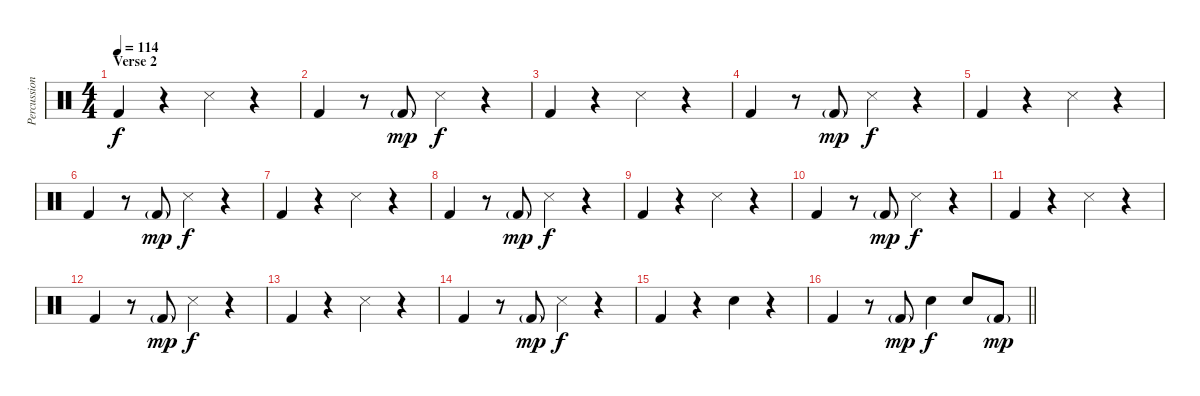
\track ("Percussion" "Percussion") {instrument percussion}
\staff {score}
\articulation defaults
\ts (4 4)
\section ("" "Verse 2")
\tempo 114
\clef neutral
\ks c "Kick (hit) 2".4{dy f}
r.4 "Snare (side stick) 3".4 r.4 |
"Kick (hit) 2".4 r.8 "Kick (hit) 2"{g}.8{dy mp} "Snare (side stick) 3".4{dy f} r.4 |
"Kick (hit) 2".4 r.4 "Snare (side stick) 3".4 r.4 |
"Kick (hit) 2".4 r.8 "Kick (hit) 2"{g}.8{dy mp} "Snare (side stick) 3".4{dy f} r.4 |
"Kick (hit) 2".4 r.4 "Snare (side stick) 3".4 r.4 |
"Kick (hit) 2".4 r.8 "Kick (hit) 2"{g}.8{dy mp} "Snare (side stick) 3".4{dy f} r.4 |
"Kick (hit) 2".4 r.4 "Snare (side stick) 3".4 r.4 |
"Kick (hit) 2".4 r.8 "Kick (hit) 2"{g}.8{dy mp} "Snare (side stick) 3".4{dy f} r.4 |
"Kick (hit) 2".4 r.4 "Snare (side stick) 3".4 r.4 |
"Kick (hit) 2".4 r.8 "Kick (hit) 2"{g}.8{dy mp} "Snare (side stick) 3".4{dy f} r.4 |
"Kick (hit) 2".4 r.4 "Snare (side stick) 3".4 r.4 |
"Kick (hit) 2".4 r.8 "Kick (hit) 2"{g}.8{dy mp} "Snare (side stick) 3".4{dy f} r.4 |
"Kick (hit) 2".4 r.4 "Snare (side stick) 3".4 r.4 |
"Kick (hit) 2".4 r.8 "Kick (hit) 2"{g}.8{dy mp} "Snare (side stick) 3".4{dy f} r.4 |
"Kick (hit) 2".4 r.4 "Snare (hit) 2".4 r.4 |
\barLineRight lightlight "Kick (hit) 2".4
r.8 "Kick (hit) 2"{g}.8{dy mp} "Snare (hit) 2".4{dy f} "Snare (hit) 2".8 "Kick (hit) 2"{g}.8{dy mp}
